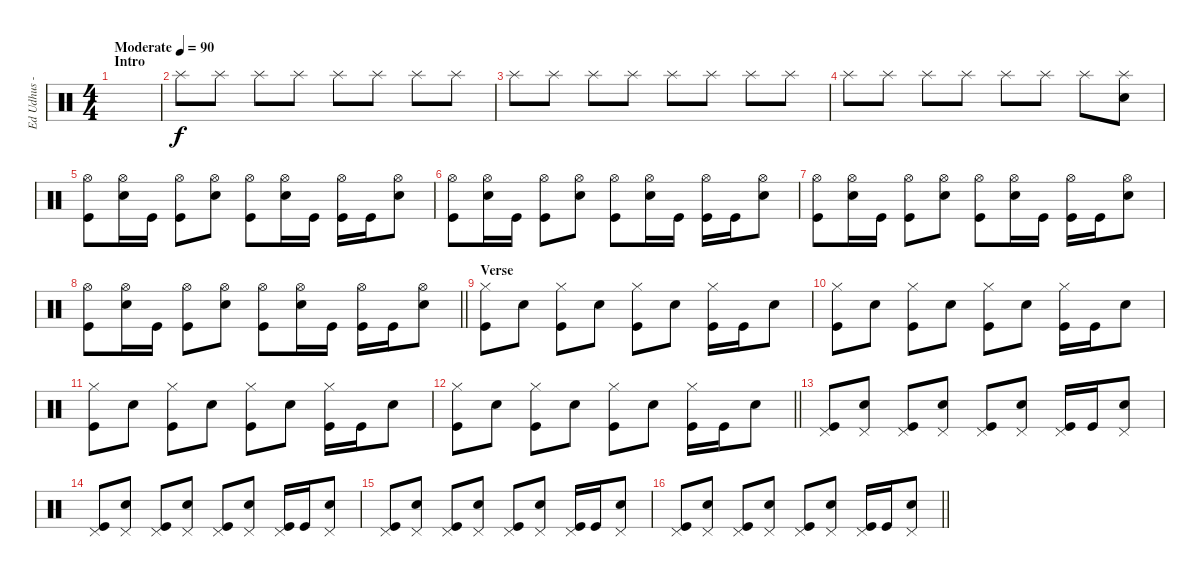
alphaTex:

\track ("Ed Udhus - Drums" "Ed Udhus -") {instrument percussion}
\staff {score}
\articulation defaults
\ts (4 4)
\section ("" "Intro")
\tempo (90 "Moderate")
\clef neutral
\ks c
|
"Splash (hit)".8{volume 11} "Splash (hit)".8 "Splash (hit)".8 "Splash (hit)".8 "Splash (hit)".8 "Splash (hit)".8 "Splash (hit)".8 "Splash (hit)".8 |
"Splash (hit)".8 "Splash (hit)".8 "Splash (hit)".8 "Splash (hit)".8 "Splash (hit)".8 "Splash (hit)".8 "Splash (hit)".8 "Splash (hit)".8 |
"Splash (hit)".8 "Splash (hit)".8 "Splash (hit)".8 "Splash (hit)".8 "Splash (hit)".8 "Splash (hit)".8 "Splash (hit)".8 ("Splash (hit)" "Electric Snare (hit)").8 |
("Hi-Hat (open)" "Kick (hit)").8 ("Hi-Hat (open)" "Electric Snare (hit)").16 "Kick (hit)".16 ("Hi-Hat (open)" "Kick (hit)").8 ("Hi-Hat (open)" "Electric Snare (hit)").8 ("Hi-Hat (open)" "Kick (hit)").8 ("Hi-Hat (open)" "Electric Snare (hit)").16 "Kick (hit)".16 ("Hi-Hat (open)" "Kick (hit)").16 "Kick (hit)".16 ("Hi-Hat (open)" "Electric Snare (hit)").8 |
("Hi-Hat (open)" "Kick (hit)").8 ("Hi-Hat (open)" "Electric Snare (hit)").16 "Kick (hit)".16 ("Hi-Hat (open)" "Kick (hit)").8 ("Hi-Hat (open)" "Electric Snare (hit)").8 ("Hi-Hat (open)" "Kick (hit)").8 ("Hi-Hat (open)" "Electric Snare (hit)").16 "Kick (hit)".16 ("Hi-Hat (open)" "Kick (hit)").16 "Kick (hit)".16 ("Hi-Hat (open)" "Electric Snare (hit)").8 |
("Hi-Hat (open)" "Kick (hit)").8 ("Hi-Hat (open)" "Electric Snare (hit)").16 "Kick (hit)".16 ("Hi-Hat (open)" "Kick (hit)").8 ("Hi-Hat (open)" "Electric Snare (hit)").8 ("Hi-Hat (open)" "Kick (hit)").8 ("Hi-Hat (open)" "Electric Snare (hit)").16 "Kick (hit)".16 ("Hi-Hat (open)" "Kick (hit)").16 "Kick (hit)".16 ("Hi-Hat (open)" "Electric Snare (hit)").8 |
\barLineRight lightlight
("Hi-Hat (open)" "Kick (hit)").8 ("Hi-Hat (open)" "Electric Snare (hit)").16 "Kick (hit)".16 ("Hi-Hat (open)" "Kick (hit)").8 ("Hi-Hat (open)" "Electric Snare (hit)").8 ("Hi-Hat (open)" "Kick (hit)").8 ("Hi-Hat (open)" "Electric Snare (hit)").16 "Kick (hit)".16 ("Hi-Hat (open)" "Kick (hit)").16 "Kick (hit)".16 ("Hi-Hat (open)" "Electric Snare (hit)").8 |
\section ("" "Verse")
("Hi-Hat (closed)" "Kick (hit)").8 "Electric Snare (hit)".8 ("Hi-Hat (closed)" "Kick (hit)").8 "Electric Snare (hit)".8 ("Hi-Hat (closed)" "Kick (hit)").8 "Electric Snare (hit)".8 ("Hi-Hat (closed)" "Kick (hit)").16 "Kick (hit)".16 "Electric Snare (hit)".8 |
("Hi-Hat (closed)" "Kick (hit)").8 "Electric Snare (hit)".8 ("Hi-Hat (closed)" "Kick (hit)").8 "Electric Snare (hit)".8 ("Hi-Hat (closed)" "Kick (hit)").8 "Electric Snare (hit)".8 ("Hi-Hat (closed)" "Kick (hit)").16 "Kick (hit)".16 "Electric Snare (hit)".8 |
("Hi-Hat (closed)" "Kick (hit)").8 "Electric Snare (hit)".8 ("Hi-Hat (closed)" "Kick (hit)").8 "Electric Snare (hit)".8 ("Hi-Hat (closed)" "Kick (hit)").8 "Electric Snare (hit)".8 ("Hi-Hat (closed)" "Kick (hit)").16 "Kick (hit)".16 "Electric Snare (hit)".8 |
\barLineRight lightlight
("Hi-Hat (closed)" "Kick (hit)").8 "Electric Snare (hit)".8 ("Hi-Hat (closed)" "Kick (hit)").8 "Electric Snare (hit)".8 ("Hi-Hat (closed)" "Kick (hit)").8 "Electric Snare (hit)".8 ("Hi-Hat (closed)" "Kick (hit)").16 "Kick (hit)".16 "Electric Snare (hit)".8 |
("Pedal Hi-Hat (hit)" "Kick (hit)").8 ("Pedal Hi-Hat (hit)" "Electric Snare (hit)").8 ("Pedal Hi-Hat (hit)" "Kick (hit)").8 ("Pedal Hi-Hat (hit)" "Electric Snare (hit)").8 ("Pedal Hi-Hat (hit)" "Kick (hit)").8 ("Pedal Hi-Hat (hit)" "Electric Snare (hit)").8 ("Pedal Hi-Hat (hit)" "Kick (hit)").16 "Kick (hit)".16 ("Pedal Hi-Hat (hit)" "Electric Snare (hit)").8 |
("Pedal Hi-Hat (hit)" "Kick (hit)").8 ("Pedal Hi-Hat (hit)" "Electric Snare (hit)").8 ("Pedal Hi-Hat (hit)" "Kick (hit)").8 ("Pedal Hi-Hat (hit)" "Electric Snare (hit)").8 ("Pedal Hi-Hat (hit)" "Kick (hit)").8 ("Pedal Hi-Hat (hit)" "Electric Snare (hit)").8 ("Pedal Hi-Hat (hit)" "Kick (hit)").16 "Kick (hit)".16 ("Pedal Hi-Hat (hit)" "Electric Snare (hit)").8 |
("Pedal Hi-Hat (hit)" "Kick (hit)").8 ("Pedal Hi-Hat (hit)" "Electric Snare (hit)").8 ("Pedal Hi-Hat (hit)" "Kick (hit)").8 ("Pedal Hi-Hat (hit)" "Electric Snare (hit)").8 ("Pedal Hi-Hat (hit)" "Kick (hit)").8 ("Pedal Hi-Hat (hit)" "Electric Snare (hit)").8 ("Pedal Hi-Hat (hit)" "Kick (hit)").16 "Kick (hit)".16 ("Pedal Hi-Hat (hit)" "Electric Snare (hit)").8 |
\barLineRight lightlight
("Pedal Hi-Hat (hit)" "Kick (hit)").8 ("Pedal Hi-Hat (hit)" "Electric Snare (hit)").8 ("Pedal Hi-Hat (hit)" "Kick (hit)").8 ("Pedal Hi-Hat (hit)" "Electric Snare (hit)").8 ("Pedal Hi-Hat (hit)" "Kick (hit)").8 ("Pedal Hi-Hat (hit)" "Electric Snare (hit)").8 ("Pedal Hi-Hat (hit)" "Kick (hit)").16 "Kick (hit)".16 ("Pedal Hi-Hat (hit)" "Electric Snare (hit)").8
